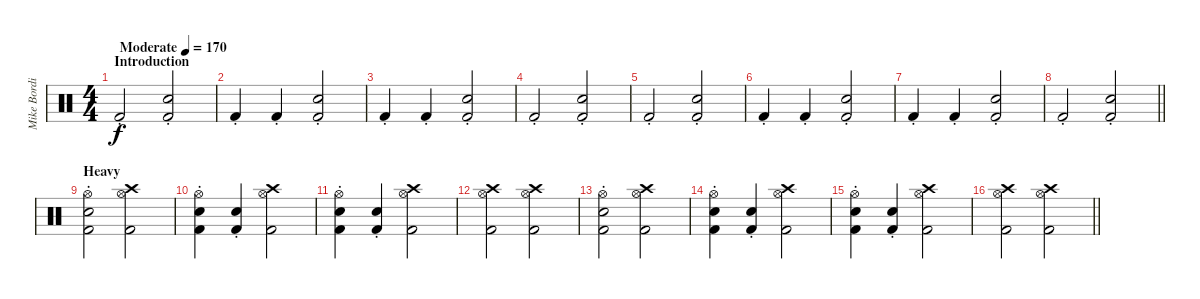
\track ("Mike Bordin" "Mike Bordi") {instrument percussion}
\staff {score}
\articulation defaults
\ts (4 4)
\section ("" "Introduction")
\tempo (170 "Moderate")
\clef neutral
\ks c "Kick (hit) 2"{st}.2{dy f volume 5}
("Snare (hit) 2" "Kick (hit) 2"{st}).2 |
"Kick (hit) 2"{st}.4 "Kick (hit) 2"{st}.4 ("Snare (hit) 2" "Kick (hit) 2"{st}).2 |
"Kick (hit) 2"{st}.4 "Kick (hit) 2"{st}.4 ("Snare (hit) 2" "Kick (hit) 2"{st}).2 |
"Kick (hit) 2"{st}.2 ("Snare (hit) 2" "Kick (hit) 2"{st}).2 |
"Kick (hit) 2"{st}.2 ("Snare (hit) 2" "Kick (hit) 2"{st}).2 |
"Kick (hit) 2"{st}.4 "Kick (hit) 2"{st}.4 ("Snare (hit) 2" "Kick (hit) 2"{st}).2 |
"Kick (hit) 2"{st}.4 "Kick (hit) 2"{st}.4 ("Snare (hit) 2" "Kick (hit) 2"{st}).2 |
\barLineRight lightlight "Kick (hit) 2"{st}.2
("Snare (hit) 2" "Kick (hit) 2"{st}).2 |
\section ("" "Heavy")
("Hi-Hat (open)" "Snare (hit) 2" "Kick (hit) 2"{st}).2{volume 14} ("Hi-Hat (open)" "Crash high (hit)" "Kick (hit) 2").2 |
("Hi-Hat (open)" "Snare (hit) 2" "Kick (hit) 2"{st}).4 ("Snare (hit) 2" "Kick (hit) 2"{st}).4 ("Hi-Hat (open)" "Crash high (hit)" "Kick (hit) 2").2 |
("Hi-Hat (open)" "Snare (hit) 2" "Kick (hit) 2"{st}).4 ("Snare (hit) 2" "Kick (hit) 2"{st}).4 ("Hi-Hat (open)" "Crash high (hit)" "Kick (hit) 2").2 |
("Hi-Hat (open)" "Crash high (hit)" "Kick (hit) 2").2 ("Hi-Hat (open)" "Crash high (hit)" "Kick (hit) 2").2 |
("Hi-Hat (open)" "Snare (hit) 2" "Kick (hit) 2"{st}).2 ("Hi-Hat (open)" "Crash high (hit)" "Kick (hit) 2").2 |
("Hi-Hat (open)" "Snare (hit) 2" "Kick (hit) 2"{st}).4 ("Snare (hit) 2" "Kick (hit) 2"{st}).4 ("Hi-Hat (open)" "Crash high (hit)" "Kick (hit) 2").2 |
("Hi-Hat (open)" "Snare (hit) 2" "Kick (hit) 2"{st}).4 ("Snare (hit) 2" "Kick (hit) 2"{st}).4 ("Hi-Hat (open)" "Crash high (hit)" "Kick (hit) 2").2 |
\barLineRight lightlight
("Hi-Hat (open)" "Crash high (hit)" "Kick (hit) 2").2 ("Hi-Hat (open)" "Crash high (hit)" "Kick (hit) 2").2
